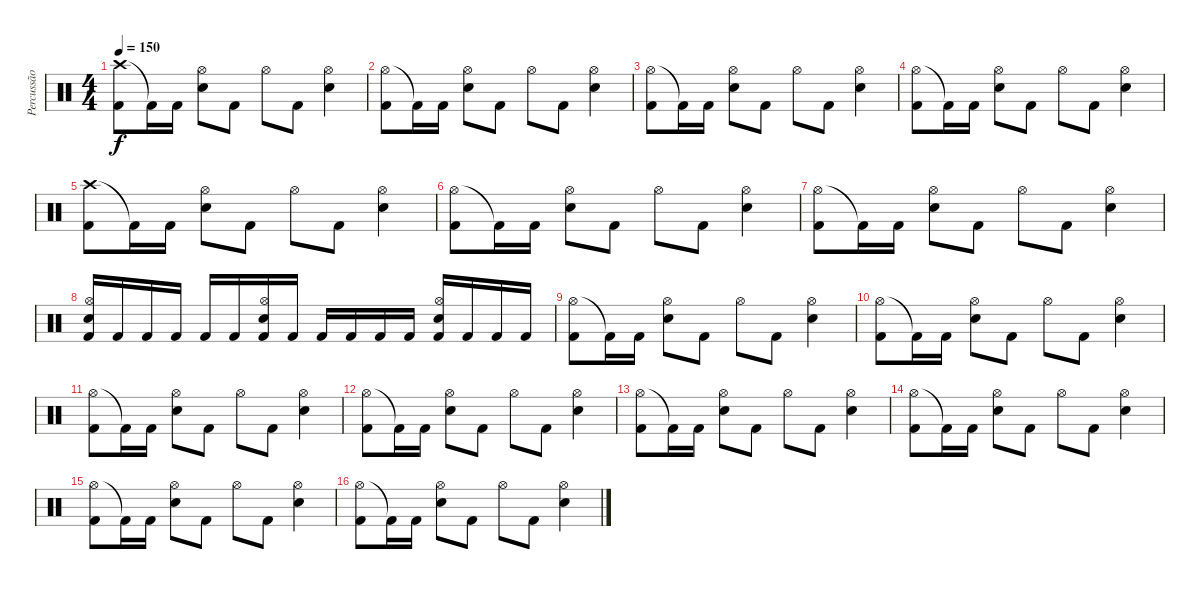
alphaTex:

\track ("Percussão" "Percussão") {instrument percussion}
\staff {score}
\articulation defaults
\ts (4 4)
\tempo 150
\clef neutral
\ks c
("Crash high (hit)" "Kick (hit) 2").8{dy f} "Kick (hit) 2"{t}.16 "Kick (hit) 2".16 ("Hi-Hat (open)" "Electric Snare (hit)").8 "Kick (hit) 2".8 "Hi-Hat (open)".8 "Kick (hit) 2".8 ("Hi-Hat (open)" "Electric Snare (hit)").4 |
("Hi-Hat (open)" "Kick (hit) 2").8 "Kick (hit) 2"{t}.16 "Kick (hit) 2".16 ("Hi-Hat (open)" "Electric Snare (hit)").8 "Kick (hit) 2".8 "Hi-Hat (open)".8 "Kick (hit) 2".8 ("Hi-Hat (open)" "Electric Snare (hit)").4 |
("Hi-Hat (open)" "Kick (hit) 2").8 "Kick (hit) 2"{t}.16 "Kick (hit) 2".16 ("Hi-Hat (open)" "Electric Snare (hit)").8 "Kick (hit) 2".8 "Hi-Hat (open)".8 "Kick (hit) 2".8 ("Hi-Hat (open)" "Electric Snare (hit)").4 |
("Hi-Hat (open)" "Kick (hit) 2").8 "Kick (hit) 2"{t}.16 "Kick (hit) 2".16 ("Hi-Hat (open)" "Electric Snare (hit)").8 "Kick (hit) 2".8 "Hi-Hat (open)".8 "Kick (hit) 2".8 ("Hi-Hat (open)" "Electric Snare (hit)").4 |
("Crash high (hit)" "Kick (hit) 2").8 "Kick (hit) 2"{t}.16 "Kick (hit) 2".16 ("Hi-Hat (open)" "Electric Snare (hit)").8 "Kick (hit) 2".8 "Hi-Hat (open)".8 "Kick (hit) 2".8 ("Hi-Hat (open)" "Electric Snare (hit)").4 |
("Hi-Hat (open)" "Kick (hit) 2").8 "Kick (hit) 2"{t}.16 "Kick (hit) 2".16 ("Hi-Hat (open)" "Electric Snare (hit)").8 "Kick (hit) 2".8 "Hi-Hat (open)".8 "Kick (hit) 2".8 ("Hi-Hat (open)" "Electric Snare (hit)").4 |
("Hi-Hat (open)" "Kick (hit) 2").8 "Kick (hit) 2"{t}.16 "Kick (hit) 2".16 ("Hi-Hat (open)" "Electric Snare (hit)").8 "Kick (hit) 2".8 "Hi-Hat (open)".8 "Kick (hit) 2".8 ("Hi-Hat (open)" "Electric Snare (hit)").4 |
("Hi-Hat (open)" "Electric Snare (hit)" "Kick (hit) 2").16 "Kick (hit) 2".16 "Kick (hit) 2".16 "Kick (hit) 2".16 "Kick (hit) 2".16 "Kick (hit) 2".16 ("Hi-Hat (open)" "Electric Snare (hit)" "Kick (hit) 2").16 "Kick (hit) 2".16 "Kick (hit) 2".16 "Kick (hit) 2".16 "Kick (hit) 2".16 "Kick (hit) 2".16 ("Hi-Hat (open)" "Electric Snare (hit)" "Kick (hit) 2").16 "Kick (hit) 2".16 "Kick (hit) 2".16 "Kick (hit) 2".16 |
("Hi-Hat (open)" "Kick (hit) 2").8 "Kick (hit) 2"{t}.16 "Kick (hit) 2".16 ("Hi-Hat (open)" "Electric Snare (hit)").8 "Kick (hit) 2".8 "Hi-Hat (open)".8 "Kick (hit) 2".8 ("Hi-Hat (open)" "Electric Snare (hit)").4 |
("Hi-Hat (open)" "Kick (hit) 2").8 "Kick (hit) 2"{t}.16 "Kick (hit) 2".16 ("Hi-Hat (open)" "Electric Snare (hit)").8 "Kick (hit) 2".8 "Hi-Hat (open)".8 "Kick (hit) 2".8 ("Hi-Hat (open)" "Electric Snare (hit)").4 |
("Hi-Hat (open)" "Kick (hit) 2").8 "Kick (hit) 2"{t}.16 "Kick (hit) 2".16 ("Hi-Hat (open)" "Electric Snare (hit)").8 "Kick (hit) 2".8 "Hi-Hat (open)".8 "Kick (hit) 2".8 ("Hi-Hat (open)" "Electric Snare (hit)").4 |
("Hi-Hat (open)" "Kick (hit) 2").8 "Kick (hit) 2"{t}.16 "Kick (hit) 2".16 ("Hi-Hat (open)" "Electric Snare (hit)").8 "Kick (hit) 2".8 "Hi-Hat (open)".8 "Kick (hit) 2".8 ("Hi-Hat (open)" "Electric Snare (hit)").4 |
("Hi-Hat (open)" "Kick (hit) 2").8 "Kick (hit) 2"{t}.16 "Kick (hit) 2".16 ("Hi-Hat (open)" "Electric Snare (hit)").8 "Kick (hit) 2".8 "Hi-Hat (open)".8 "Kick (hit) 2".8 ("Hi-Hat (open)" "Electric Snare (hit)").4 |
("Hi-Hat (open)" "Kick (hit) 2").8 "Kick (hit) 2"{t}.16 "Kick (hit) 2".16 ("Hi-Hat (open)" "Electric Snare (hit)").8 "Kick (hit) 2".8 "Hi-Hat (open)".8 "Kick (hit) 2".8 ("Hi-Hat (open)" "Electric Snare (hit)").4 |
("Hi-Hat (open)" "Kick (hit) 2").8 "Kick (hit) 2"{t}.16 "Kick (hit) 2".16 ("Hi-Hat (open)" "Electric Snare (hit)").8 "Kick (hit) 2".8 "Hi-Hat (open)".8 "Kick (hit) 2".8 ("Hi-Hat (open)" "Electric Snare (hit)").4 |
("Hi-Hat (open)" "Kick (hit) 2").8 "Kick (hit) 2"{t}.16 "Kick (hit) 2".16 ("Hi-Hat (open)" "Electric Snare (hit)").8 "Kick (hit) 2".8 "Hi-Hat (open)".8 "Kick (hit) 2".8 ("Hi-Hat (open)" "Electric Snare (hit)").4
